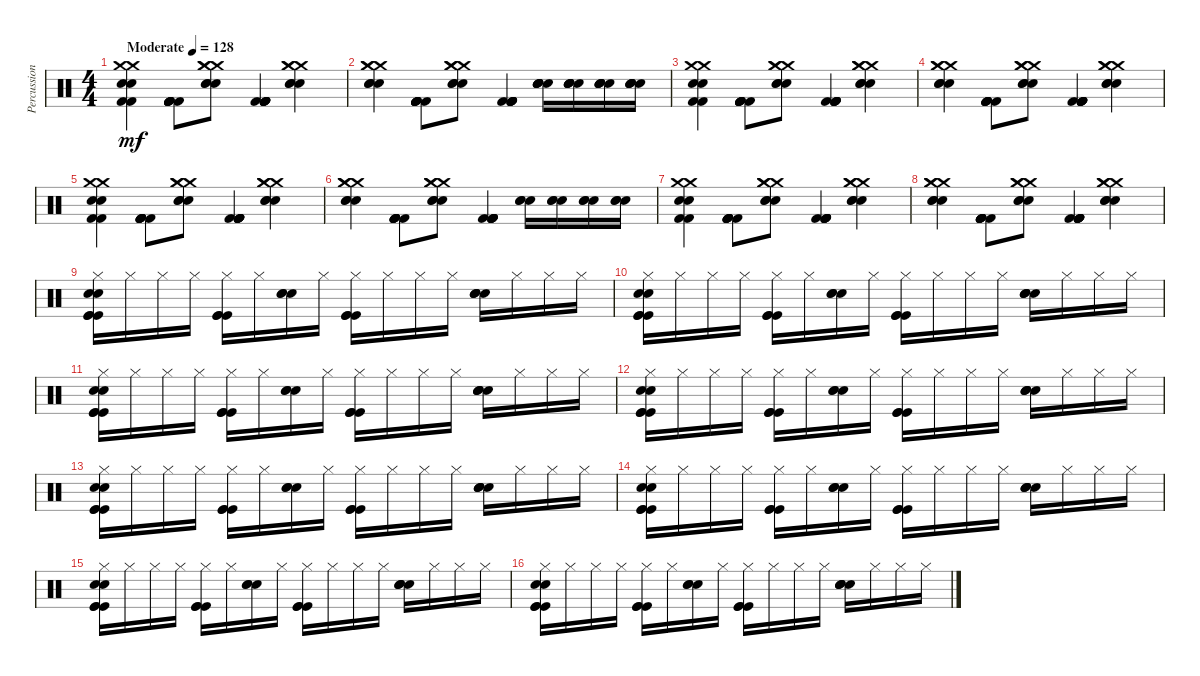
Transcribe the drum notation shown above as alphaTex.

\track ("Percussion" "Percussion") {instrument percussion}
\staff {score}
\articulation defaults
\ts (4 4)
\tempo (128 "Moderate")
\clef neutral
\ks c
("Snare (hit) 2" "Snare (hit) 2" "Kick (hit) 2" "Kick (hit) 2" "Crash medium (hit)" "Crash medium (hit)").4{dy mf} ("Kick (hit) 2" "Kick (hit) 2" "Kick (hit) 2" "Kick (hit) 2" "Kick (hit) 2" "Kick (hit) 2").8 ("Snare (hit) 2" "Crash medium (hit)" "Snare (hit) 2" "Crash medium (hit)" "Snare (hit) 2" "Crash medium (hit)").8 ("Kick (hit) 2" "Kick (hit) 2" "Kick (hit) 2" "Kick (hit) 2" "Kick (hit) 2" "Kick (hit) 2").4 ("Snare (hit) 2" "Crash medium (hit)" "Snare (hit) 2" "Crash medium (hit)" "Snare (hit) 2" "Crash medium (hit)").4 |
("Snare (hit) 2" "Crash medium (hit)" "Snare (hit) 2" "Crash medium (hit)" "Snare (hit) 2" "Crash medium (hit)").4 ("Kick (hit) 2" "Kick (hit) 2" "Kick (hit) 2" "Kick (hit) 2" "Kick (hit) 2" "Kick (hit) 2").8 ("Snare (hit) 2" "Crash medium (hit)" "Snare (hit) 2" "Crash medium (hit)" "Snare (hit) 2" "Crash medium (hit)").8 ("Kick (hit) 2" "Kick (hit) 2" "Kick (hit) 2" "Kick (hit) 2" "Kick (hit) 2" "Kick (hit) 2").4 ("Snare (hit) 2" "Snare (hit) 2" "Snare (hit) 2" "Snare (hit) 2" "Snare (hit) 2").16 ("Snare (hit) 2" "Snare (hit) 2" "Snare (hit) 2" "Snare (hit) 2" "Snare (hit) 2").16 ("Snare (hit) 2" "Snare (hit) 2" "Snare (hit) 2" "Snare (hit) 2" "Snare (hit) 2").16 ("Snare (hit) 2" "Snare (hit) 2" "Snare (hit) 2" "Snare (hit) 2" "Snare (hit) 2").16 |
("Snare (hit) 2" "Snare (hit) 2" "Kick (hit) 2" "Kick (hit) 2" "Crash medium (hit)" "Crash medium (hit)").4 ("Kick (hit) 2" "Kick (hit) 2" "Kick (hit) 2" "Kick (hit) 2" "Kick (hit) 2" "Kick (hit) 2").8 ("Snare (hit) 2" "Crash medium (hit)" "Snare (hit) 2" "Crash medium (hit)" "Snare (hit) 2" "Crash medium (hit)").8 ("Kick (hit) 2" "Kick (hit) 2" "Kick (hit) 2" "Kick (hit) 2" "Kick (hit) 2" "Kick (hit) 2").4 ("Snare (hit) 2" "Crash medium (hit)" "Snare (hit) 2" "Crash medium (hit)" "Snare (hit) 2" "Crash medium (hit)").4 |
("Snare (hit) 2" "Crash medium (hit)" "Snare (hit) 2" "Crash medium (hit)" "Snare (hit) 2" "Crash medium (hit)").4 ("Kick (hit) 2" "Kick (hit) 2" "Kick (hit) 2" "Kick (hit) 2" "Kick (hit) 2" "Kick (hit) 2").8 ("Snare (hit) 2" "Crash medium (hit)" "Snare (hit) 2" "Crash medium (hit)" "Snare (hit) 2" "Crash medium (hit)").8 ("Kick (hit) 2" "Kick (hit) 2" "Kick (hit) 2" "Kick (hit) 2" "Kick (hit) 2" "Kick (hit) 2").4 ("Snare (hit) 2" "Crash medium (hit)" "Snare (hit) 2" "Crash medium (hit)" "Snare (hit) 2" "Crash medium (hit)").4 |
("Snare (hit) 2" "Snare (hit) 2" "Kick (hit) 2" "Kick (hit) 2" "Crash medium (hit)" "Crash medium (hit)").4 ("Kick (hit) 2" "Kick (hit) 2" "Kick (hit) 2" "Kick (hit) 2" "Kick (hit) 2" "Kick (hit) 2").8 ("Snare (hit) 2" "Crash medium (hit)" "Snare (hit) 2" "Crash medium (hit)" "Snare (hit) 2" "Crash medium (hit)").8 ("Kick (hit) 2" "Kick (hit) 2" "Kick (hit) 2" "Kick (hit) 2" "Kick (hit) 2" "Kick (hit) 2").4 ("Snare (hit) 2" "Crash medium (hit)" "Snare (hit) 2" "Crash medium (hit)" "Snare (hit) 2" "Crash medium (hit)").4 |
("Snare (hit) 2" "Crash medium (hit)" "Snare (hit) 2" "Crash medium (hit)" "Snare (hit) 2" "Crash medium (hit)").4 ("Kick (hit) 2" "Kick (hit) 2" "Kick (hit) 2" "Kick (hit) 2" "Kick (hit) 2" "Kick (hit) 2").8 ("Snare (hit) 2" "Crash medium (hit)" "Snare (hit) 2" "Crash medium (hit)" "Snare (hit) 2" "Crash medium (hit)").8 ("Kick (hit) 2" "Kick (hit) 2" "Kick (hit) 2" "Kick (hit) 2" "Kick (hit) 2" "Kick (hit) 2").4 ("Snare (hit) 2" "Snare (hit) 2" "Snare (hit) 2").16 ("Snare (hit) 2" "Snare (hit) 2" "Snare (hit) 2").16 ("Snare (hit) 2" "Snare (hit) 2" "Snare (hit) 2").16 ("Snare (hit) 2" "Snare (hit) 2" "Snare (hit) 2").16 |
("Snare (hit) 2" "Snare (hit) 2" "Kick (hit) 2" "Kick (hit) 2" "Crash medium (hit)" "Crash medium (hit)").4 ("Kick (hit) 2" "Kick (hit) 2" "Kick (hit) 2" "Kick (hit) 2" "Kick (hit) 2" "Kick (hit) 2").8 ("Snare (hit) 2" "Crash medium (hit)" "Snare (hit) 2" "Crash medium (hit)" "Snare (hit) 2" "Crash medium (hit)").8 ("Kick (hit) 2" "Kick (hit) 2" "Kick (hit) 2" "Kick (hit) 2" "Kick (hit) 2" "Kick (hit) 2").4 ("Snare (hit) 2" "Crash medium (hit)" "Snare (hit) 2" "Crash medium (hit)" "Snare (hit) 2" "Crash medium (hit)").4 |
("Snare (hit) 2" "Crash medium (hit)" "Snare (hit) 2" "Crash medium (hit)" "Snare (hit) 2" "Crash medium (hit)").4 ("Kick (hit) 2" "Kick (hit) 2" "Kick (hit) 2" "Kick (hit) 2" "Kick (hit) 2" "Kick (hit) 2").8 ("Snare (hit) 2" "Crash medium (hit)" "Snare (hit) 2" "Crash medium (hit)" "Snare (hit) 2" "Crash medium (hit)").8 ("Kick (hit) 2" "Kick (hit) 2" "Kick (hit) 2" "Kick (hit) 2" "Kick (hit) 2" "Kick (hit) 2").4 ("Snare (hit) 2" "Crash medium (hit)" "Snare (hit) 2" "Crash medium (hit)" "Snare (hit) 2" "Crash medium (hit)").4 |
("Hi-Hat (closed)" "Kick (hit)" "Kick (hit)" "Kick (hit)" "Snare (hit) 2" "Snare (hit) 2").16 "Hi-Hat (closed)".16 "Hi-Hat (closed)".16 "Hi-Hat (closed)".16 ("Hi-Hat (closed)" "Kick (hit)" "Kick (hit)" "Kick (hit)").16 "Hi-Hat (closed)".16 ("Snare (hit) 2" "Snare (hit) 2" "Snare (hit) 2").16 "Hi-Hat (closed)".16 ("Hi-Hat (closed)" "Kick (hit)" "Kick (hit)" "Kick (hit)").16 "Hi-Hat (closed)".16 "Hi-Hat (closed)".16 "Hi-Hat (closed)".16 ("Snare (hit) 2" "Snare (hit) 2" "Snare (hit) 2" "Snare (hit) 2").16 "Hi-Hat (closed)".16 "Hi-Hat (closed)".16 "Hi-Hat (closed)".16 |
("Hi-Hat (closed)" "Kick (hit)" "Kick (hit)" "Kick (hit)" "Snare (hit) 2" "Snare (hit) 2").16 "Hi-Hat (closed)".16 "Hi-Hat (closed)".16 "Hi-Hat (closed)".16 ("Hi-Hat (closed)" "Kick (hit)" "Kick (hit)" "Kick (hit)").16 "Hi-Hat (closed)".16 ("Snare (hit) 2" "Snare (hit) 2" "Snare (hit) 2").16 "Hi-Hat (closed)".16 ("Hi-Hat (closed)" "Kick (hit)" "Kick (hit)" "Kick (hit)").16 "Hi-Hat (closed)".16 "Hi-Hat (closed)".16 "Hi-Hat (closed)".16 ("Snare (hit) 2" "Snare (hit) 2" "Snare (hit) 2" "Snare (hit) 2").16 "Hi-Hat (closed)".16 "Hi-Hat (closed)".16 "Hi-Hat (closed)".16 |
("Hi-Hat (closed)" "Kick (hit)" "Kick (hit)" "Kick (hit)" "Snare (hit) 2" "Snare (hit) 2").16 "Hi-Hat (closed)".16 "Hi-Hat (closed)".16 "Hi-Hat (closed)".16 ("Hi-Hat (closed)" "Kick (hit)" "Kick (hit)" "Kick (hit)").16 "Hi-Hat (closed)".16 ("Snare (hit) 2" "Snare (hit) 2" "Snare (hit) 2").16 "Hi-Hat (closed)".16 ("Hi-Hat (closed)" "Kick (hit)" "Kick (hit)" "Kick (hit)").16 "Hi-Hat (closed)".16 "Hi-Hat (closed)".16 "Hi-Hat (closed)".16 ("Snare (hit) 2" "Snare (hit) 2" "Snare (hit) 2" "Snare (hit) 2").16 "Hi-Hat (closed)".16 "Hi-Hat (closed)".16 "Hi-Hat (closed)".16 |
("Hi-Hat (closed)" "Kick (hit)" "Kick (hit)" "Kick (hit)" "Snare (hit) 2" "Snare (hit) 2").16 "Hi-Hat (closed)".16 "Hi-Hat (closed)".16 "Hi-Hat (closed)".16 ("Hi-Hat (closed)" "Kick (hit)" "Kick (hit)" "Kick (hit)").16 "Hi-Hat (closed)".16 ("Snare (hit) 2" "Snare (hit) 2" "Snare (hit) 2").16 "Hi-Hat (closed)".16 ("Hi-Hat (closed)" "Kick (hit)" "Kick (hit)" "Kick (hit)").16 "Hi-Hat (closed)".16 "Hi-Hat (closed)".16 "Hi-Hat (closed)".16 ("Snare (hit) 2" "Snare (hit) 2" "Snare (hit) 2" "Snare (hit) 2").16 "Hi-Hat (closed)".16 "Hi-Hat (closed)".16 "Hi-Hat (closed)".16 |
("Hi-Hat (closed)" "Kick (hit)" "Kick (hit)" "Kick (hit)" "Snare (hit) 2" "Snare (hit) 2").16 "Hi-Hat (closed)".16 "Hi-Hat (closed)".16 "Hi-Hat (closed)".16 ("Hi-Hat (closed)" "Kick (hit)" "Kick (hit)" "Kick (hit)").16 "Hi-Hat (closed)".16 ("Snare (hit) 2" "Snare (hit) 2" "Snare (hit) 2").16 "Hi-Hat (closed)".16 ("Hi-Hat (closed)" "Kick (hit)" "Kick (hit)" "Kick (hit)").16 "Hi-Hat (closed)".16 "Hi-Hat (closed)".16 "Hi-Hat (closed)".16 ("Snare (hit) 2" "Snare (hit) 2" "Snare (hit) 2" "Snare (hit) 2").16 "Hi-Hat (closed)".16 "Hi-Hat (closed)".16 "Hi-Hat (closed)".16 |
("Hi-Hat (closed)" "Kick (hit)" "Kick (hit)" "Kick (hit)" "Snare (hit) 2" "Snare (hit) 2").16 "Hi-Hat (closed)".16 "Hi-Hat (closed)".16 "Hi-Hat (closed)".16 ("Hi-Hat (closed)" "Kick (hit)" "Kick (hit)" "Kick (hit)").16 "Hi-Hat (closed)".16 ("Snare (hit) 2" "Snare (hit) 2" "Snare (hit) 2").16 "Hi-Hat (closed)".16 ("Hi-Hat (closed)" "Kick (hit)" "Kick (hit)" "Kick (hit)").16 "Hi-Hat (closed)".16 "Hi-Hat (closed)".16 "Hi-Hat (closed)".16 ("Snare (hit) 2" "Snare (hit) 2" "Snare (hit) 2" "Snare (hit) 2").16 "Hi-Hat (closed)".16 "Hi-Hat (closed)".16 "Hi-Hat (closed)".16 |
("Hi-Hat (closed)" "Kick (hit)" "Kick (hit)" "Kick (hit)" "Snare (hit) 2" "Snare (hit) 2").16 "Hi-Hat (closed)".16 "Hi-Hat (closed)".16 "Hi-Hat (closed)".16 ("Hi-Hat (closed)" "Kick (hit)" "Kick (hit)" "Kick (hit)").16 "Hi-Hat (closed)".16 ("Snare (hit) 2" "Snare (hit) 2" "Snare (hit) 2").16 "Hi-Hat (closed)".16 ("Hi-Hat (closed)" "Kick (hit)" "Kick (hit)" "Kick (hit)").16 "Hi-Hat (closed)".16 "Hi-Hat (closed)".16 "Hi-Hat (closed)".16 ("Snare (hit) 2" "Snare (hit) 2" "Snare (hit) 2" "Snare (hit) 2").16 "Hi-Hat (closed)".16 "Hi-Hat (closed)".16 "Hi-Hat (closed)".16 |
("Hi-Hat (closed)" "Kick (hit)" "Kick (hit)" "Kick (hit)" "Snare (hit) 2" "Snare (hit) 2").16 "Hi-Hat (closed)".16 "Hi-Hat (closed)".16 "Hi-Hat (closed)".16 ("Hi-Hat (closed)" "Kick (hit)" "Kick (hit)" "Kick (hit)").16 "Hi-Hat (closed)".16 ("Snare (hit) 2" "Snare (hit) 2" "Snare (hit) 2").16 "Hi-Hat (closed)".16 ("Hi-Hat (closed)" "Kick (hit)" "Kick (hit)" "Kick (hit)").16 "Hi-Hat (closed)".16 "Hi-Hat (closed)".16 "Hi-Hat (closed)".16 ("Snare (hit) 2" "Snare (hit) 2" "Snare (hit) 2" "Snare (hit) 2").16 "Hi-Hat (closed)".16 "Hi-Hat (closed)".16 "Hi-Hat (closed)".16
